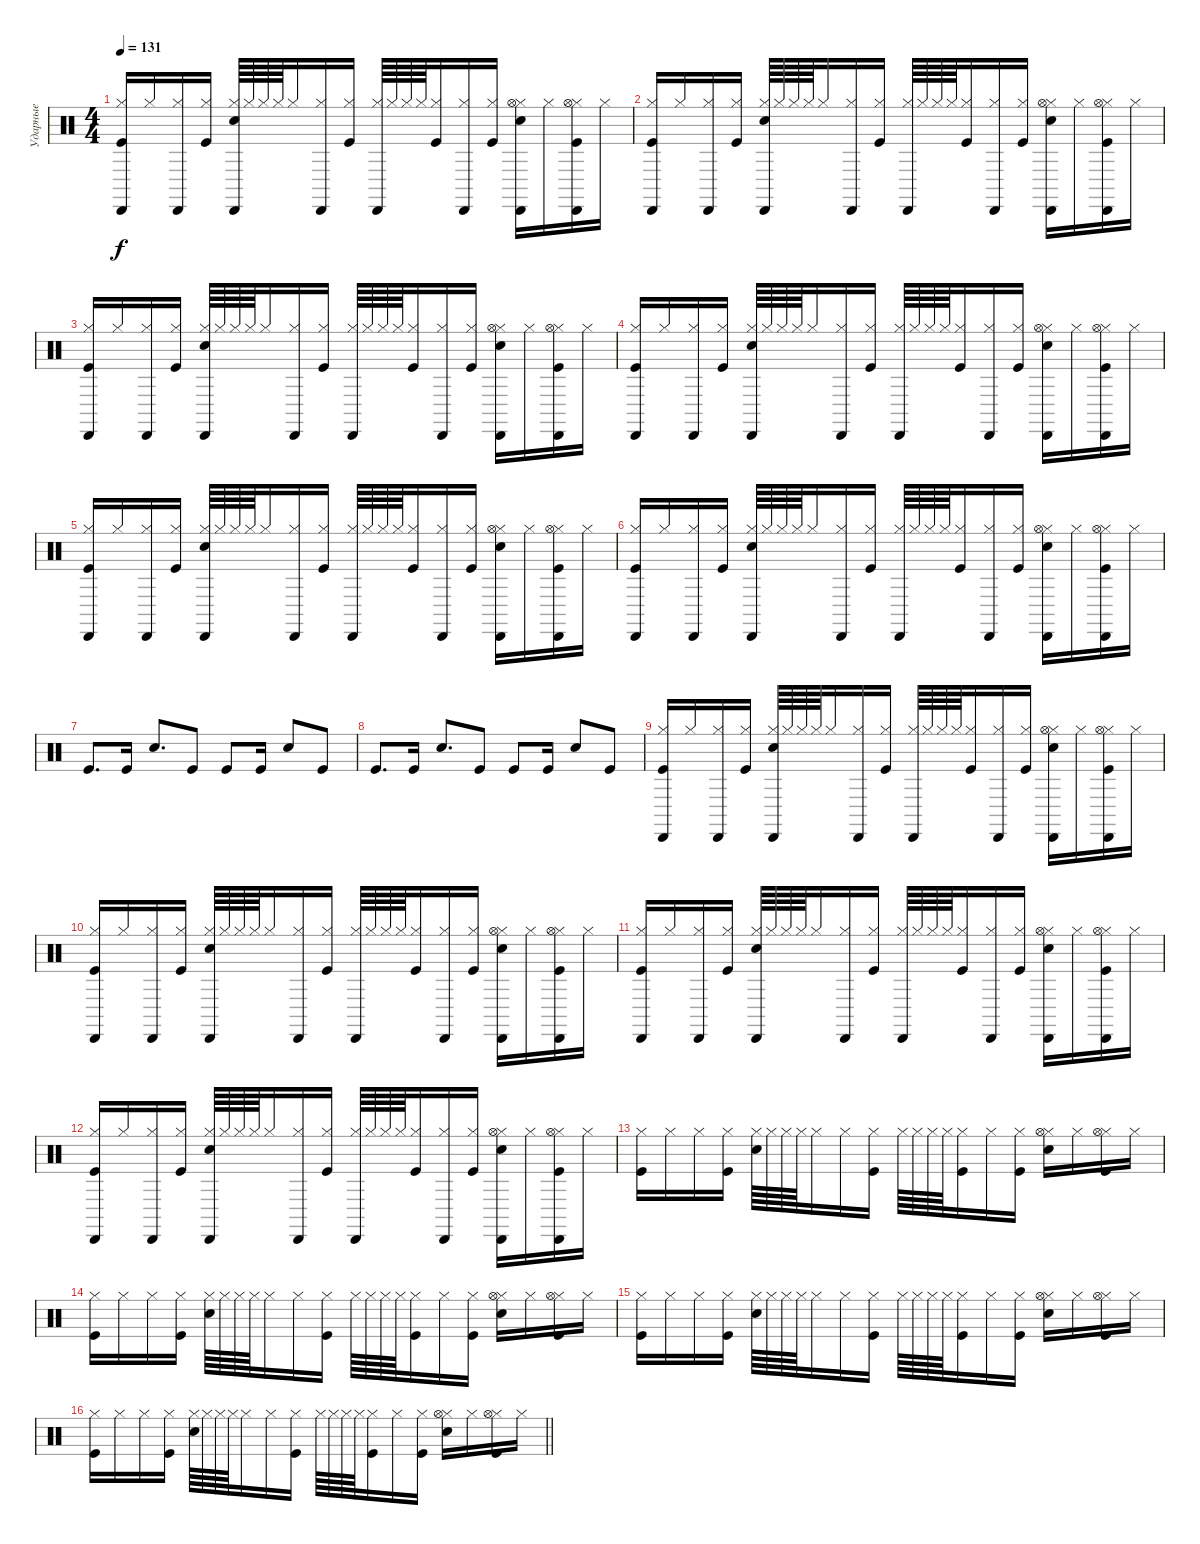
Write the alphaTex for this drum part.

\track ("Ударные" "Ударные") {instrument percussion}
\staff {score}
\articulation defaults
\ts (4 4)
\tempo 131
\clef neutral
\ks c
("Hi-Hat (closed)" "Kick (hit)" "Cabasa (hit)").16{dy f} "Hi-Hat (closed)".16 ("Hi-Hat (closed)" "Cabasa (hit)").16 ("Hi-Hat (closed)" "Kick (hit)").16 ("Hi-Hat (closed)" "Snare (hit) 2" "Cabasa (hit)").64 "Hi-Hat (closed)".64 "Hi-Hat (closed)".64 "Hi-Hat (closed)".64 "Hi-Hat (closed)".16 ("Hi-Hat (closed)" "Cabasa (hit)").16 ("Hi-Hat (closed)" "Kick (hit)").16 ("Hi-Hat (closed)" "Cabasa (hit)").64 "Hi-Hat (closed)".64 "Hi-Hat (closed)".64 "Hi-Hat (closed)".64 ("Hi-Hat (closed)" "Kick (hit)").16 ("Hi-Hat (closed)" "Cabasa (hit)").16 ("Hi-Hat (closed)" "Kick (hit)").16 ("Hi-Hat (closed)" "Hi-Hat (open)" "Snare (hit) 2" "Cabasa (hit)").16 "Hi-Hat (closed)".16 ("Hi-Hat (closed)" "Hi-Hat (open)" "Kick (hit)" "Cabasa (hit)").16 "Hi-Hat (closed)".16 |
("Hi-Hat (closed)" "Kick (hit)" "Cabasa (hit)").16 "Hi-Hat (closed)".16 ("Hi-Hat (closed)" "Cabasa (hit)").16 ("Hi-Hat (closed)" "Kick (hit)").16 ("Hi-Hat (closed)" "Snare (hit) 2" "Cabasa (hit)").64 "Hi-Hat (closed)".64 "Hi-Hat (closed)".64 "Hi-Hat (closed)".64 "Hi-Hat (closed)".16 ("Hi-Hat (closed)" "Cabasa (hit)").16 ("Hi-Hat (closed)" "Kick (hit)").16 ("Hi-Hat (closed)" "Cabasa (hit)").64 "Hi-Hat (closed)".64 "Hi-Hat (closed)".64 "Hi-Hat (closed)".64 ("Hi-Hat (closed)" "Kick (hit)").16 ("Hi-Hat (closed)" "Cabasa (hit)").16 ("Hi-Hat (closed)" "Kick (hit)").16 ("Hi-Hat (closed)" "Hi-Hat (open)" "Snare (hit) 2" "Cabasa (hit)").16 "Hi-Hat (closed)".16 ("Hi-Hat (closed)" "Hi-Hat (open)" "Kick (hit)" "Cabasa (hit)").16 "Hi-Hat (closed)".16 |
("Hi-Hat (closed)" "Kick (hit)" "Cabasa (hit)").16 "Hi-Hat (closed)".16 ("Hi-Hat (closed)" "Cabasa (hit)").16 ("Hi-Hat (closed)" "Kick (hit)").16 ("Hi-Hat (closed)" "Snare (hit) 2" "Cabasa (hit)").64 "Hi-Hat (closed)".64 "Hi-Hat (closed)".64 "Hi-Hat (closed)".64 "Hi-Hat (closed)".16 ("Hi-Hat (closed)" "Cabasa (hit)").16 ("Hi-Hat (closed)" "Kick (hit)").16 ("Hi-Hat (closed)" "Cabasa (hit)").64 "Hi-Hat (closed)".64 "Hi-Hat (closed)".64 "Hi-Hat (closed)".64 ("Hi-Hat (closed)" "Kick (hit)").16 ("Hi-Hat (closed)" "Cabasa (hit)").16 ("Hi-Hat (closed)" "Kick (hit)").16 ("Hi-Hat (closed)" "Hi-Hat (open)" "Snare (hit) 2" "Cabasa (hit)").16 "Hi-Hat (closed)".16 ("Hi-Hat (closed)" "Hi-Hat (open)" "Kick (hit)" "Cabasa (hit)").16 "Hi-Hat (closed)".16 |
("Hi-Hat (closed)" "Kick (hit)" "Cabasa (hit)").16 "Hi-Hat (closed)".16 ("Hi-Hat (closed)" "Cabasa (hit)").16 ("Hi-Hat (closed)" "Kick (hit)").16 ("Hi-Hat (closed)" "Snare (hit) 2" "Cabasa (hit)").64 "Hi-Hat (closed)".64 "Hi-Hat (closed)".64 "Hi-Hat (closed)".64 "Hi-Hat (closed)".16 ("Hi-Hat (closed)" "Cabasa (hit)").16 ("Hi-Hat (closed)" "Kick (hit)").16 ("Hi-Hat (closed)" "Cabasa (hit)").64 "Hi-Hat (closed)".64 "Hi-Hat (closed)".64 "Hi-Hat (closed)".64 ("Hi-Hat (closed)" "Kick (hit)").16 ("Hi-Hat (closed)" "Cabasa (hit)").16 ("Hi-Hat (closed)" "Kick (hit)").16 ("Hi-Hat (closed)" "Hi-Hat (open)" "Snare (hit) 2" "Cabasa (hit)").16 "Hi-Hat (closed)".16 ("Hi-Hat (closed)" "Hi-Hat (open)" "Kick (hit)" "Cabasa (hit)").16 "Hi-Hat (closed)".16 |
("Hi-Hat (closed)" "Kick (hit)" "Cabasa (hit)").16 "Hi-Hat (closed)".16 ("Hi-Hat (closed)" "Cabasa (hit)").16 ("Hi-Hat (closed)" "Kick (hit)").16 ("Hi-Hat (closed)" "Snare (hit) 2" "Cabasa (hit)").64 "Hi-Hat (closed)".64 "Hi-Hat (closed)".64 "Hi-Hat (closed)".64 "Hi-Hat (closed)".16 ("Hi-Hat (closed)" "Cabasa (hit)").16 ("Hi-Hat (closed)" "Kick (hit)").16 ("Hi-Hat (closed)" "Cabasa (hit)").64 "Hi-Hat (closed)".64 "Hi-Hat (closed)".64 "Hi-Hat (closed)".64 ("Hi-Hat (closed)" "Kick (hit)").16 ("Hi-Hat (closed)" "Cabasa (hit)").16 ("Hi-Hat (closed)" "Kick (hit)").16 ("Hi-Hat (closed)" "Hi-Hat (open)" "Snare (hit) 2" "Cabasa (hit)").16 "Hi-Hat (closed)".16 ("Hi-Hat (closed)" "Hi-Hat (open)" "Kick (hit)" "Cabasa (hit)").16 "Hi-Hat (closed)".16 |
("Hi-Hat (closed)" "Kick (hit)" "Cabasa (hit)").16 "Hi-Hat (closed)".16 ("Hi-Hat (closed)" "Cabasa (hit)").16 ("Hi-Hat (closed)" "Kick (hit)").16 ("Hi-Hat (closed)" "Snare (hit) 2" "Cabasa (hit)").64 "Hi-Hat (closed)".64 "Hi-Hat (closed)".64 "Hi-Hat (closed)".64 "Hi-Hat (closed)".16 ("Hi-Hat (closed)" "Cabasa (hit)").16 ("Hi-Hat (closed)" "Kick (hit)").16 ("Hi-Hat (closed)" "Cabasa (hit)").64 "Hi-Hat (closed)".64 "Hi-Hat (closed)".64 "Hi-Hat (closed)".64 ("Hi-Hat (closed)" "Kick (hit)").16 ("Hi-Hat (closed)" "Cabasa (hit)").16 ("Hi-Hat (closed)" "Kick (hit)").16 ("Hi-Hat (closed)" "Hi-Hat (open)" "Snare (hit) 2" "Cabasa (hit)").16 "Hi-Hat (closed)".16 ("Hi-Hat (closed)" "Hi-Hat (open)" "Kick (hit)" "Cabasa (hit)").16 "Hi-Hat (closed)".16 |
"Kick (hit)".8{d} "Kick (hit)".16 "Snare (hit) 2".8{d} "Kick (hit)".8 "Kick (hit)".8 "Kick (hit)".16 "Snare (hit) 2".8 "Kick (hit)".8 |
"Kick (hit)".8{d} "Kick (hit)".16 "Snare (hit) 2".8{d} "Kick (hit)".8 "Kick (hit)".8 "Kick (hit)".16 "Snare (hit) 2".8 "Kick (hit)".8 |
("Hi-Hat (closed)" "Kick (hit)" "Cabasa (hit)").16 "Hi-Hat (closed)".16 ("Hi-Hat (closed)" "Cabasa (hit)").16 ("Hi-Hat (closed)" "Kick (hit)").16 ("Hi-Hat (closed)" "Snare (hit) 2" "Cabasa (hit)").64 "Hi-Hat (closed)".64 "Hi-Hat (closed)".64 "Hi-Hat (closed)".64 "Hi-Hat (closed)".16 ("Hi-Hat (closed)" "Cabasa (hit)").16 ("Hi-Hat (closed)" "Kick (hit)").16 ("Hi-Hat (closed)" "Cabasa (hit)").64 "Hi-Hat (closed)".64 "Hi-Hat (closed)".64 "Hi-Hat (closed)".64 ("Hi-Hat (closed)" "Kick (hit)").16 ("Hi-Hat (closed)" "Cabasa (hit)").16 ("Hi-Hat (closed)" "Kick (hit)").16 ("Hi-Hat (closed)" "Hi-Hat (open)" "Snare (hit) 2" "Cabasa (hit)").16 "Hi-Hat (closed)".16 ("Hi-Hat (closed)" "Hi-Hat (open)" "Kick (hit)" "Cabasa (hit)").16 "Hi-Hat (closed)".16 |
("Hi-Hat (closed)" "Kick (hit)" "Cabasa (hit)").16 "Hi-Hat (closed)".16 ("Hi-Hat (closed)" "Cabasa (hit)").16 ("Hi-Hat (closed)" "Kick (hit)").16 ("Hi-Hat (closed)" "Snare (hit) 2" "Cabasa (hit)").64 "Hi-Hat (closed)".64 "Hi-Hat (closed)".64 "Hi-Hat (closed)".64 "Hi-Hat (closed)".16 ("Hi-Hat (closed)" "Cabasa (hit)").16 ("Hi-Hat (closed)" "Kick (hit)").16 ("Hi-Hat (closed)" "Cabasa (hit)").64 "Hi-Hat (closed)".64 "Hi-Hat (closed)".64 "Hi-Hat (closed)".64 ("Hi-Hat (closed)" "Kick (hit)").16 ("Hi-Hat (closed)" "Cabasa (hit)").16 ("Hi-Hat (closed)" "Kick (hit)").16 ("Hi-Hat (closed)" "Hi-Hat (open)" "Snare (hit) 2" "Cabasa (hit)").16 "Hi-Hat (closed)".16 ("Hi-Hat (closed)" "Hi-Hat (open)" "Kick (hit)" "Cabasa (hit)").16 "Hi-Hat (closed)".16 |
("Hi-Hat (closed)" "Kick (hit)" "Cabasa (hit)").16 "Hi-Hat (closed)".16 ("Hi-Hat (closed)" "Cabasa (hit)").16 ("Hi-Hat (closed)" "Kick (hit)").16 ("Hi-Hat (closed)" "Snare (hit) 2" "Cabasa (hit)").64 "Hi-Hat (closed)".64 "Hi-Hat (closed)".64 "Hi-Hat (closed)".64 "Hi-Hat (closed)".16 ("Hi-Hat (closed)" "Cabasa (hit)").16 ("Hi-Hat (closed)" "Kick (hit)").16 ("Hi-Hat (closed)" "Cabasa (hit)").64 "Hi-Hat (closed)".64 "Hi-Hat (closed)".64 "Hi-Hat (closed)".64 ("Hi-Hat (closed)" "Kick (hit)").16 ("Hi-Hat (closed)" "Cabasa (hit)").16 ("Hi-Hat (closed)" "Kick (hit)").16 ("Hi-Hat (closed)" "Hi-Hat (open)" "Snare (hit) 2" "Cabasa (hit)").16 "Hi-Hat (closed)".16 ("Hi-Hat (closed)" "Hi-Hat (open)" "Kick (hit)" "Cabasa (hit)").16 "Hi-Hat (closed)".16 |
("Hi-Hat (closed)" "Kick (hit)" "Cabasa (hit)").16 "Hi-Hat (closed)".16 ("Hi-Hat (closed)" "Cabasa (hit)").16 ("Hi-Hat (closed)" "Kick (hit)").16 ("Hi-Hat (closed)" "Snare (hit) 2" "Cabasa (hit)").64 "Hi-Hat (closed)".64 "Hi-Hat (closed)".64 "Hi-Hat (closed)".64 "Hi-Hat (closed)".16 ("Hi-Hat (closed)" "Cabasa (hit)").16 ("Hi-Hat (closed)" "Kick (hit)").16 ("Hi-Hat (closed)" "Cabasa (hit)").64 "Hi-Hat (closed)".64 "Hi-Hat (closed)".64 "Hi-Hat (closed)".64 ("Hi-Hat (closed)" "Kick (hit)").16 ("Hi-Hat (closed)" "Cabasa (hit)").16 ("Hi-Hat (closed)" "Kick (hit)").16 ("Hi-Hat (closed)" "Hi-Hat (open)" "Snare (hit) 2" "Cabasa (hit)").16 "Hi-Hat (closed)".16 ("Hi-Hat (closed)" "Hi-Hat (open)" "Kick (hit)" "Cabasa (hit)").16 "Hi-Hat (closed)".16 |
("Hi-Hat (closed)" "Kick (hit)").16 "Hi-Hat (closed)".16 "Hi-Hat (closed)".16 ("Hi-Hat (closed)" "Kick (hit)").16 ("Hi-Hat (closed)" "Snare (hit) 2").64 "Hi-Hat (closed)".64 "Hi-Hat (closed)".64 "Hi-Hat (closed)".64 "Hi-Hat (closed)".16 "Hi-Hat (closed)".16 ("Hi-Hat (closed)" "Kick (hit)").16 "Hi-Hat (closed)".64 "Hi-Hat (closed)".64 "Hi-Hat (closed)".64 "Hi-Hat (closed)".64 ("Hi-Hat (closed)" "Kick (hit)").16 "Hi-Hat (closed)".16 ("Hi-Hat (closed)" "Kick (hit)").16 ("Hi-Hat (closed)" "Hi-Hat (open)" "Snare (hit) 2").16 "Hi-Hat (closed)".16 ("Hi-Hat (closed)" "Hi-Hat (open)" "Kick (hit)").16 "Hi-Hat (closed)".16 |
("Hi-Hat (closed)" "Kick (hit)").16 "Hi-Hat (closed)".16 "Hi-Hat (closed)".16 ("Hi-Hat (closed)" "Kick (hit)").16 ("Hi-Hat (closed)" "Snare (hit) 2").64 "Hi-Hat (closed)".64 "Hi-Hat (closed)".64 "Hi-Hat (closed)".64 "Hi-Hat (closed)".16 "Hi-Hat (closed)".16 ("Hi-Hat (closed)" "Kick (hit)").16 "Hi-Hat (closed)".64 "Hi-Hat (closed)".64 "Hi-Hat (closed)".64 "Hi-Hat (closed)".64 ("Hi-Hat (closed)" "Kick (hit)").16 "Hi-Hat (closed)".16 ("Hi-Hat (closed)" "Kick (hit)").16 ("Hi-Hat (closed)" "Hi-Hat (open)" "Snare (hit) 2").16 "Hi-Hat (closed)".16 ("Hi-Hat (closed)" "Hi-Hat (open)" "Kick (hit)").16 "Hi-Hat (closed)".16 |
("Hi-Hat (closed)" "Kick (hit)").16 "Hi-Hat (closed)".16 "Hi-Hat (closed)".16 ("Hi-Hat (closed)" "Kick (hit)").16 ("Hi-Hat (closed)" "Snare (hit) 2").64 "Hi-Hat (closed)".64 "Hi-Hat (closed)".64 "Hi-Hat (closed)".64 "Hi-Hat (closed)".16 "Hi-Hat (closed)".16 ("Hi-Hat (closed)" "Kick (hit)").16 "Hi-Hat (closed)".64 "Hi-Hat (closed)".64 "Hi-Hat (closed)".64 "Hi-Hat (closed)".64 ("Hi-Hat (closed)" "Kick (hit)").16 "Hi-Hat (closed)".16 ("Hi-Hat (closed)" "Kick (hit)").16 ("Hi-Hat (closed)" "Hi-Hat (open)" "Snare (hit) 2").16 "Hi-Hat (closed)".16 ("Hi-Hat (closed)" "Hi-Hat (open)" "Kick (hit)").16 "Hi-Hat (closed)".16 |
\barLineRight lightlight
("Hi-Hat (closed)" "Kick (hit)").16{beam Down} "Hi-Hat (closed)".16{beam Down} "Hi-Hat (closed)".16{beam Down} ("Hi-Hat (closed)" "Kick (hit)").16{beam Down} ("Hi-Hat (closed)" "Snare (hit) 2").64 "Hi-Hat (closed)".64 "Hi-Hat (closed)".64 "Hi-Hat (closed)".64 "Hi-Hat (closed)".16 "Hi-Hat (closed)".16 ("Hi-Hat (closed)" "Kick (hit)").16 "Hi-Hat (closed)".64 "Hi-Hat (closed)".64 "Hi-Hat (closed)".64 "Hi-Hat (closed)".64 ("Hi-Hat (closed)" "Kick (hit)").16 "Hi-Hat (closed)".16 ("Hi-Hat (closed)" "Kick (hit)").16 ("Hi-Hat (closed)" "Hi-Hat (open)" "Snare (hit) 2").16 "Hi-Hat (closed)".16 ("Hi-Hat (closed)" "Hi-Hat (open)" "Kick (hit)").16 "Hi-Hat (closed)".16
